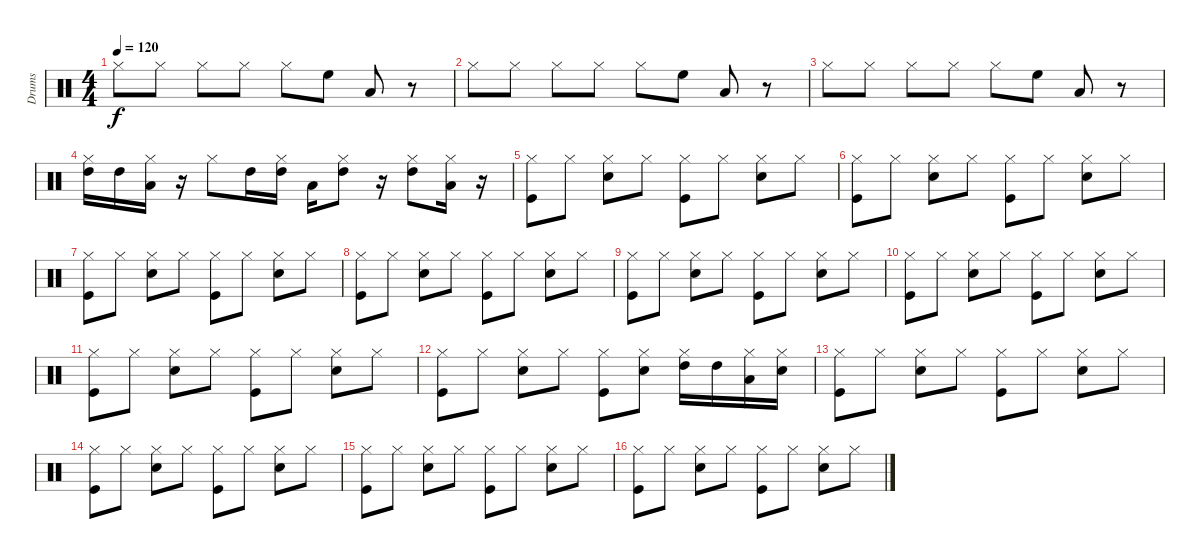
\track ("Drums" "Drums") {instrument percussion}
\staff {score}
\articulation defaults
\ts (4 4)
\tempo 120
\clef neutral
\ks c "Hi-Hat (closed)".8{dy f} "Hi-Hat (closed)".8 "Hi-Hat (closed)".8 "Hi-Hat (closed)".8 "Hi-Hat (closed)".8 "High Floor Tom (hit)".8 "Low Tom (hit)".8
r.8 |
"Hi-Hat (closed)".8 "Hi-Hat (closed)".8 "Hi-Hat (closed)".8 "Hi-Hat (closed)".8 "Hi-Hat (closed)".8 "High Floor Tom (hit)".8 "Low Tom (hit)".8 r.8 |
"Hi-Hat (closed)".8 "Hi-Hat (closed)".8 "Hi-Hat (closed)".8 "Hi-Hat (closed)".8 "Hi-Hat (closed)".8 "High Floor Tom (hit)".8 "Low Tom (hit)".8 r.8 |
("High Tom (hit)" "Hi-Hat (closed)").16 "High Tom (hit)".16 ("Low Tom (hit)" "Hi-Hat (closed)").16 r.16 "Hi-Hat (closed)".8 "High Tom (hit)".16 ("High Tom (hit)" "Hi-Hat (closed)").16 "Low Tom (hit)".16 ("High Tom (hit)" "Hi-Hat (closed)").8 r.16 ("High Tom (hit)" "Hi-Hat (closed)").8 ("Low Tom (hit)" "Hi-Hat (closed)").16 r.16 |
("Kick (hit)" "Hi-Hat (closed)").8 "Hi-Hat (closed)".8 ("Snare (hit) 2" "Hi-Hat (closed)").8 "Hi-Hat (closed)".8 ("Kick (hit)" "Hi-Hat (closed)").8 "Hi-Hat (closed)".8 ("Snare (hit) 2" "Hi-Hat (closed)").8 "Hi-Hat (closed)".8 |
("Kick (hit)" "Hi-Hat (closed)").8 "Hi-Hat (closed)".8 ("Snare (hit) 2" "Hi-Hat (closed)").8 "Hi-Hat (closed)".8 ("Kick (hit)" "Hi-Hat (closed)").8 "Hi-Hat (closed)".8 ("Snare (hit) 2" "Hi-Hat (closed)").8 "Hi-Hat (closed)".8 |
("Kick (hit)" "Hi-Hat (closed)").8 "Hi-Hat (closed)".8 ("Snare (hit) 2" "Hi-Hat (closed)").8 "Hi-Hat (closed)".8 ("Kick (hit)" "Hi-Hat (closed)").8 "Hi-Hat (closed)".8 ("Snare (hit) 2" "Hi-Hat (closed)").8 "Hi-Hat (closed)".8 |
("Kick (hit)" "Hi-Hat (closed)").8 "Hi-Hat (closed)".8 ("Snare (hit) 2" "Hi-Hat (closed)").8 "Hi-Hat (closed)".8 ("Kick (hit)" "Hi-Hat (closed)").8 "Hi-Hat (closed)".8 ("Snare (hit) 2" "Hi-Hat (closed)").8 "Hi-Hat (closed)".8 |
("Kick (hit)" "Hi-Hat (closed)").8 "Hi-Hat (closed)".8 ("Snare (hit) 2" "Hi-Hat (closed)").8 "Hi-Hat (closed)".8 ("Kick (hit)" "Hi-Hat (closed)").8 "Hi-Hat (closed)".8 ("Snare (hit) 2" "Hi-Hat (closed)").8 "Hi-Hat (closed)".8 |
("Kick (hit)" "Hi-Hat (closed)").8 "Hi-Hat (closed)".8 ("Snare (hit) 2" "Hi-Hat (closed)").8 "Hi-Hat (closed)".8 ("Kick (hit)" "Hi-Hat (closed)").8 "Hi-Hat (closed)".8 ("Snare (hit) 2" "Hi-Hat (closed)").8 "Hi-Hat (closed)".8 |
("Kick (hit)" "Hi-Hat (closed)").8 "Hi-Hat (closed)".8 ("Snare (hit) 2" "Hi-Hat (closed)").8 "Hi-Hat (closed)".8 ("Kick (hit)" "Hi-Hat (closed)").8 "Hi-Hat (closed)".8 ("Snare (hit) 2" "Hi-Hat (closed)").8 "Hi-Hat (closed)".8 |
("Kick (hit)" "Hi-Hat (closed)").8 "Hi-Hat (closed)".8 ("Snare (hit) 2" "Hi-Hat (closed)").8 "Hi-Hat (closed)".8 ("Kick (hit)" "Hi-Hat (closed)").8 ("Snare (hit) 2" "Hi-Hat (closed)").8 ("High Tom (hit)" "Hi-Hat (closed)").16 "High Tom (hit)".16 ("Low Tom (hit)" "Hi-Hat (closed)").16 ("Snare (hit) 2" "Hi-Hat (closed)").16 |
("Kick (hit)" "Hi-Hat (closed)").8 "Hi-Hat (closed)".8 ("Snare (hit) 2" "Hi-Hat (closed)").8 "Hi-Hat (closed)".8 ("Kick (hit)" "Hi-Hat (closed)").8 "Hi-Hat (closed)".8 ("Snare (hit) 2" "Hi-Hat (closed)").8 "Hi-Hat (closed)".8 |
("Kick (hit)" "Hi-Hat (closed)").8 "Hi-Hat (closed)".8 ("Snare (hit) 2" "Hi-Hat (closed)").8 "Hi-Hat (closed)".8 ("Kick (hit)" "Hi-Hat (closed)").8 "Hi-Hat (closed)".8 ("Snare (hit) 2" "Hi-Hat (closed)").8 "Hi-Hat (closed)".8 |
("Kick (hit)" "Hi-Hat (closed)").8 "Hi-Hat (closed)".8 ("Snare (hit) 2" "Hi-Hat (closed)").8 "Hi-Hat (closed)".8 ("Kick (hit)" "Hi-Hat (closed)").8 "Hi-Hat (closed)".8 ("Snare (hit) 2" "Hi-Hat (closed)").8 "Hi-Hat (closed)".8 |
("Kick (hit)" "Hi-Hat (closed)").8 "Hi-Hat (closed)".8 ("Snare (hit) 2" "Hi-Hat (closed)").8 "Hi-Hat (closed)".8 ("Kick (hit)" "Hi-Hat (closed)").8 "Hi-Hat (closed)".8 ("Snare (hit) 2" "Hi-Hat (closed)").8 "Hi-Hat (closed)".8
